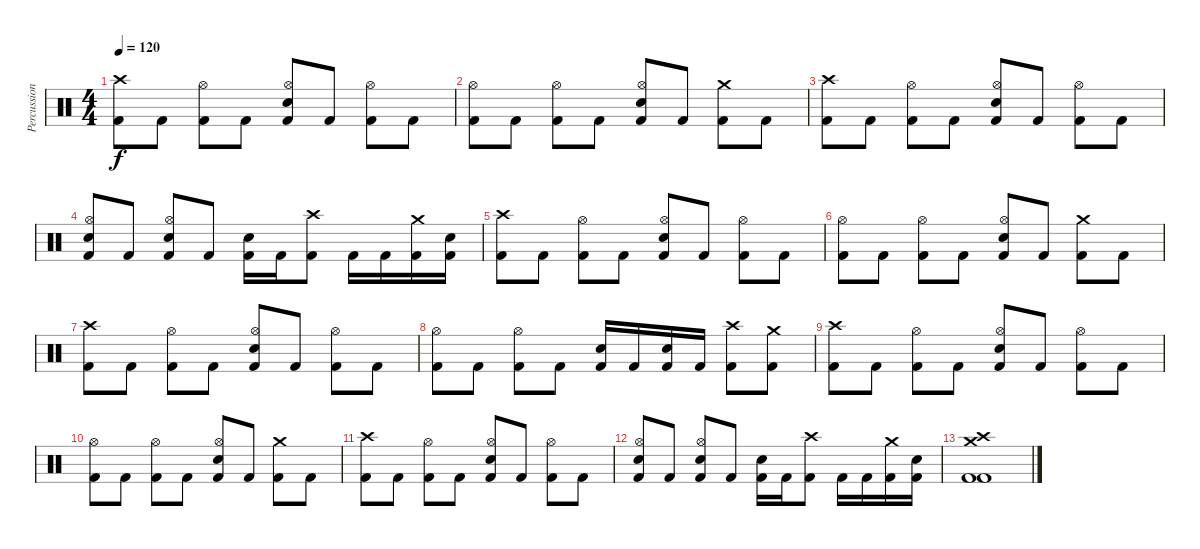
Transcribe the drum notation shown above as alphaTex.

\track ("Percussion" "Percussion") {instrument percussion}
\staff {score}
\articulation defaults
\ts (4 4)
\tempo 120
\clef neutral
\ks c
("Crash high (hit)" "Kick (hit) 2").8{dy f} "Kick (hit) 2".8 ("Hi-Hat (open)" "Kick (hit) 2").8 "Kick (hit) 2".8 ("Hi-Hat (open)" "Electric Snare (hit)" "Kick (hit) 2").8 "Kick (hit) 2".8 ("Hi-Hat (open)" "Kick (hit) 2").8 "Kick (hit) 2".8 |
("Hi-Hat (open)" "Kick (hit) 2").8 "Kick (hit) 2".8 ("Hi-Hat (open)" "Kick (hit) 2").8 "Kick (hit) 2".8 ("Hi-Hat (open)" "Electric Snare (hit)" "Kick (hit) 2").8 "Kick (hit) 2".8 ("Crash medium (hit)" "Kick (hit) 2").8 "Kick (hit) 2".8 |
("Crash high (hit)" "Kick (hit) 2").8 "Kick (hit) 2".8 ("Hi-Hat (open)" "Kick (hit) 2").8 "Kick (hit) 2".8 ("Hi-Hat (open)" "Electric Snare (hit)" "Kick (hit) 2").8 "Kick (hit) 2".8 ("Hi-Hat (open)" "Kick (hit) 2").8 "Kick (hit) 2".8 |
("Hi-Hat (open)" "Electric Snare (hit)" "Kick (hit) 2").8 "Kick (hit) 2".8 ("Hi-Hat (open)" "Electric Snare (hit)" "Kick (hit) 2").8 "Kick (hit) 2".8 ("Electric Snare (hit)" "Kick (hit) 2").16 "Kick (hit) 2".16 ("Crash high (hit)" "Kick (hit) 2").8 "Kick (hit) 2".16 "Kick (hit) 2".16 ("Crash medium (hit)" "Kick (hit) 2").16 ("Electric Snare (hit)" "Kick (hit) 2").16 |
("Crash high (hit)" "Kick (hit) 2").8 "Kick (hit) 2".8 ("Hi-Hat (open)" "Kick (hit) 2").8 "Kick (hit) 2".8 ("Hi-Hat (open)" "Electric Snare (hit)" "Kick (hit) 2").8 "Kick (hit) 2".8 ("Hi-Hat (open)" "Kick (hit) 2").8 "Kick (hit) 2".8 |
("Hi-Hat (open)" "Kick (hit) 2").8 "Kick (hit) 2".8 ("Hi-Hat (open)" "Kick (hit) 2").8 "Kick (hit) 2".8 ("Hi-Hat (open)" "Electric Snare (hit)" "Kick (hit) 2").8 "Kick (hit) 2".8 ("Crash medium (hit)" "Kick (hit) 2").8 "Kick (hit) 2".8 |
("Crash high (hit)" "Kick (hit) 2").8 "Kick (hit) 2".8 ("Hi-Hat (open)" "Kick (hit) 2").8 "Kick (hit) 2".8 ("Hi-Hat (open)" "Electric Snare (hit)" "Kick (hit) 2").8 "Kick (hit) 2".8 ("Hi-Hat (open)" "Kick (hit) 2").8 "Kick (hit) 2".8 |
("Hi-Hat (open)" "Kick (hit) 2").8 "Kick (hit) 2".8 ("Hi-Hat (open)" "Kick (hit) 2").8 "Kick (hit) 2".8 ("Electric Snare (hit)" "Kick (hit) 2").16 "Kick (hit) 2".16 ("Electric Snare (hit)" "Kick (hit) 2").16 "Kick (hit) 2".16 ("Crash high (hit)" "Kick (hit) 2").8 ("Crash medium (hit)" "Kick (hit) 2").8 |
("Crash high (hit)" "Kick (hit) 2").8 "Kick (hit) 2".8 ("Hi-Hat (open)" "Kick (hit) 2").8 "Kick (hit) 2".8 ("Hi-Hat (open)" "Electric Snare (hit)" "Kick (hit) 2").8 "Kick (hit) 2".8 ("Hi-Hat (open)" "Kick (hit) 2").8 "Kick (hit) 2".8 |
("Hi-Hat (open)" "Kick (hit) 2").8 "Kick (hit) 2".8 ("Hi-Hat (open)" "Kick (hit) 2").8 "Kick (hit) 2".8 ("Hi-Hat (open)" "Electric Snare (hit)" "Kick (hit) 2").8 "Kick (hit) 2".8 ("Crash medium (hit)" "Kick (hit) 2").8 "Kick (hit) 2".8 |
("Crash high (hit)" "Kick (hit) 2").8 "Kick (hit) 2".8 ("Hi-Hat (open)" "Kick (hit) 2").8 "Kick (hit) 2".8 ("Hi-Hat (open)" "Electric Snare (hit)" "Kick (hit) 2").8 "Kick (hit) 2".8 ("Hi-Hat (open)" "Kick (hit) 2").8 "Kick (hit) 2".8 |
("Hi-Hat (open)" "Electric Snare (hit)" "Kick (hit) 2").8 "Kick (hit) 2".8 ("Hi-Hat (open)" "Electric Snare (hit)" "Kick (hit) 2").8 "Kick (hit) 2".8 ("Electric Snare (hit)" "Kick (hit) 2").16 "Kick (hit) 2".16 ("Crash high (hit)" "Kick (hit) 2").8 "Kick (hit) 2".16 "Kick (hit) 2".16 ("Crash medium (hit)" "Kick (hit) 2").16 ("Electric Snare (hit)" "Kick (hit) 2").16 |
("Crash medium (hit)" "Crash high (hit)" "Kick (hit) 2" "Kick (hit) 2").1
